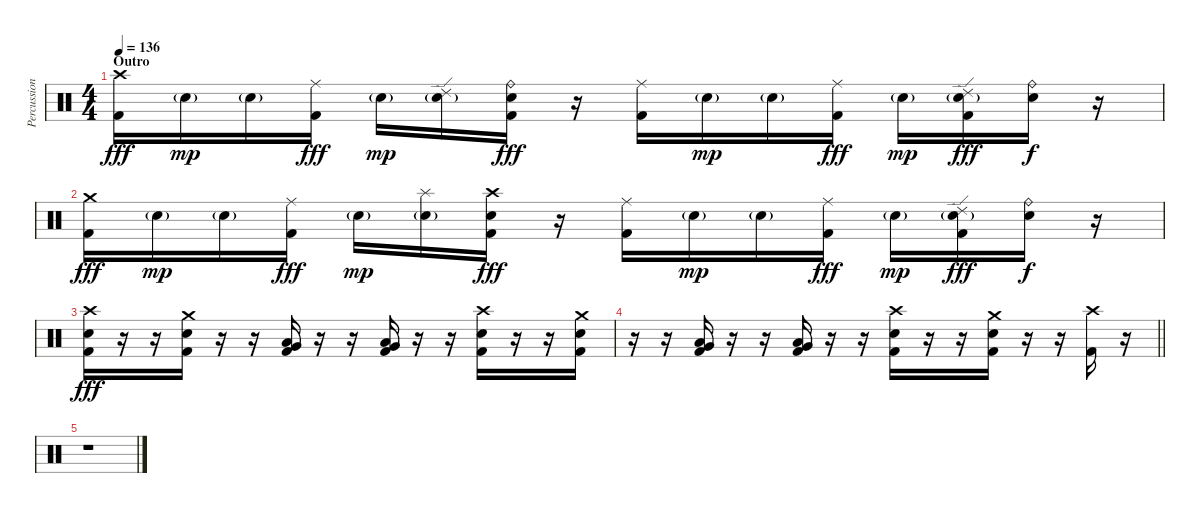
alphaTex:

\track ("Percussion" "Percussion") {instrument percussion}
\staff {score}
\articulation defaults
\ts (4 4)
\section ("" "Outro")
\tempo 136
\clef neutral
\ks c
("Crash high (hit)" "Kick (hit) 2").16{dy fff} "Electric Snare (hit)"{g}.16{dy mp} "Electric Snare (hit)"{g}.16 ("Ride (middle)" "Kick (hit) 2").16{dy fff} "Electric Snare (hit)"{g}.16{dy mp} ("Ride (edge) 2" "Electric Snare (hit)"{g}).16 ("Ride (bell)" "Electric Snare (hit)" "Kick (hit) 2").16{dy fff} r.16 ("Ride (middle)" "Kick (hit) 2").16 "Electric Snare (hit)"{g}.16{dy mp} "Electric Snare (hit)"{g}.16 ("Ride (middle)" "Kick (hit) 2").16{dy fff} "Electric Snare (hit)"{g}.16{dy mp} ("Ride (edge) 2" "Electric Snare (hit)"{g} "Kick (hit) 2").16{dy fff} ("Ride (bell)" "Electric Snare (hit)").16{dy f} r.16 |
("Crash medium (hit)" "Kick (hit) 2").16{dy fff} "Electric Snare (hit)"{g}.16{dy mp} "Electric Snare (hit)"{g}.16 ("Ride (middle)" "Kick (hit) 2").16{dy fff} "Electric Snare (hit)"{g}.16{dy mp} ("Splash (hit)" "Electric Snare (hit)"{g}).16 ("Crash high (hit)" "Electric Snare (hit)" "Kick (hit) 2").16{dy fff} r.16 ("Ride (middle)" "Kick (hit) 2").16 "Electric Snare (hit)"{g}.16{dy mp} "Electric Snare (hit)"{g}.16 ("Ride (middle)" "Kick (hit) 2").16{dy fff} "Electric Snare (hit)"{g}.16{dy mp} ("Ride (edge) 2" "Electric Snare (hit)"{g} "Kick (hit) 2").16{dy fff} ("Ride (bell)" "Electric Snare (hit)").16{dy f} r.16 |
("Crash high (hit)" "Electric Snare (hit)" "Kick (hit) 2").16{dy fff} r.16 r.16 ("Crash medium (hit)" "Electric Snare (hit)" "Kick (hit) 2").16 r.16 r.16 ("Low Tom (hit)" "Very Low Tom (hit)" "Kick (hit) 2").16 r.16 r.16 ("Very Low Tom (hit)" "Low Floor Tom (hit)" "Kick (hit) 2").16 r.16 r.16 ("Crash high (hit)" "Electric Snare (hit)" "Kick (hit) 2").16 r.16 r.16 ("Crash medium (hit)" "Electric Snare (hit)" "Kick (hit) 2").16 |
\barLineRight lightlight
r.16 r.16 ("Low Tom (hit)" "Very Low Tom (hit)" "Kick (hit) 2").16 r.16 r.16 ("Very Low Tom (hit)" "Low Floor Tom (hit)" "Kick (hit) 2").16 r.16 r.16 ("Crash high (hit)" "Electric Snare (hit)" "Kick (hit) 2").16 r.16 r.16 ("Crash medium (hit)" "Electric Snare (hit)" "Kick (hit) 2").16 r.16 r.16 ("Crash high (hit)" "Kick (hit) 2").16 r.16 |
r.1
